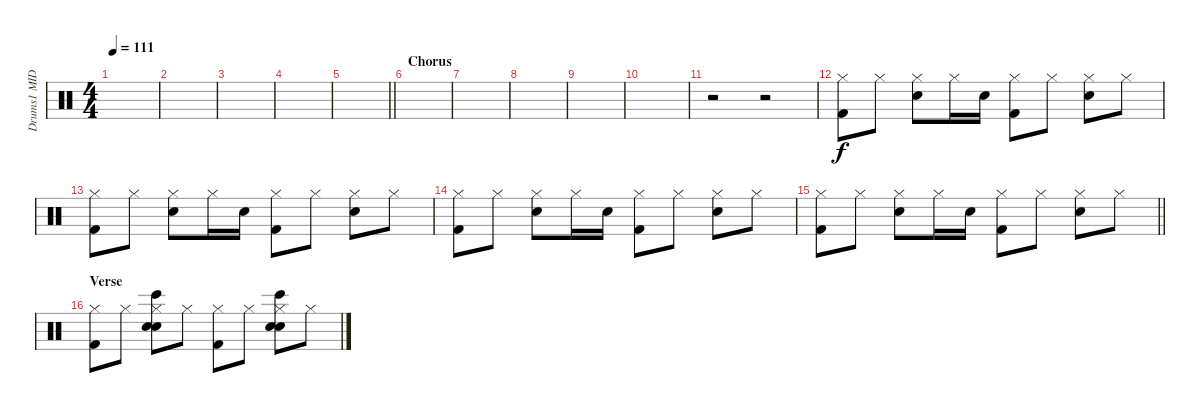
\track ("Drums1 MIDI" "Drums1 MID") {instrument percussion}
\staff {score}
\articulation defaults
\ts (4 4)
\tempo 111
\clef neutral
\ks c
|
|
|
|
\barLineRight lightlight
|
\section ("" "Chorus")
|
|
|
|
|
r.2{volume 0} r.2{volume 13} |
("Hi-Hat (closed)" "Kick (hit) 2").8 "Hi-Hat (closed)".8 ("Hi-Hat (closed)" "Snare (hit) 2").8 "Hi-Hat (closed)".16 "Snare (hit) 2".16 ("Hi-Hat (closed)" "Kick (hit) 2").8 "Hi-Hat (closed)".8 ("Hi-Hat (closed)" "Snare (hit) 2").8 "Hi-Hat (closed)".8 |
("Hi-Hat (closed)" "Kick (hit) 2").8 "Hi-Hat (closed)".8 ("Hi-Hat (closed)" "Snare (hit) 2").8 "Hi-Hat (closed)".16 "Snare (hit) 2".16 ("Hi-Hat (closed)" "Kick (hit) 2").8 "Hi-Hat (closed)".8 ("Hi-Hat (closed)" "Snare (hit) 2").8 "Hi-Hat (closed)".8 |
("Hi-Hat (closed)" "Kick (hit) 2").8 "Hi-Hat (closed)".8 ("Hi-Hat (closed)" "Snare (hit) 2").8 "Hi-Hat (closed)".16 "Snare (hit) 2".16 ("Hi-Hat (closed)" "Kick (hit) 2").8 "Hi-Hat (closed)".8 ("Hi-Hat (closed)" "Snare (hit) 2").8 "Hi-Hat (closed)".8 |
\barLineRight lightlight
("Hi-Hat (closed)" "Kick (hit) 2").8 "Hi-Hat (closed)".8 ("Hi-Hat (closed)" "Snare (hit) 2").8 "Hi-Hat (closed)".16 "Snare (hit) 2".16 ("Hi-Hat (closed)" "Kick (hit) 2").8 "Hi-Hat (closed)".8 ("Hi-Hat (closed)" "Snare (hit) 2").8 "Hi-Hat (closed)".8 |
\section ("" "Verse")
("Hi-Hat (closed)" "Kick (hit) 2").8 "Hi-Hat (closed)".8 ("Hi-Hat (closed)" "Bongo High (hit)" "Hand Clap (hit)" "Snare (hit) 2").8 "Hi-Hat (closed)".8 ("Hi-Hat (closed)" "Kick (hit) 2").8 "Hi-Hat (closed)".8 ("Hi-Hat (closed)" "Bongo High (hit)" "Hand Clap (hit)" "Snare (hit) 2").8 "Hi-Hat (closed)".8
